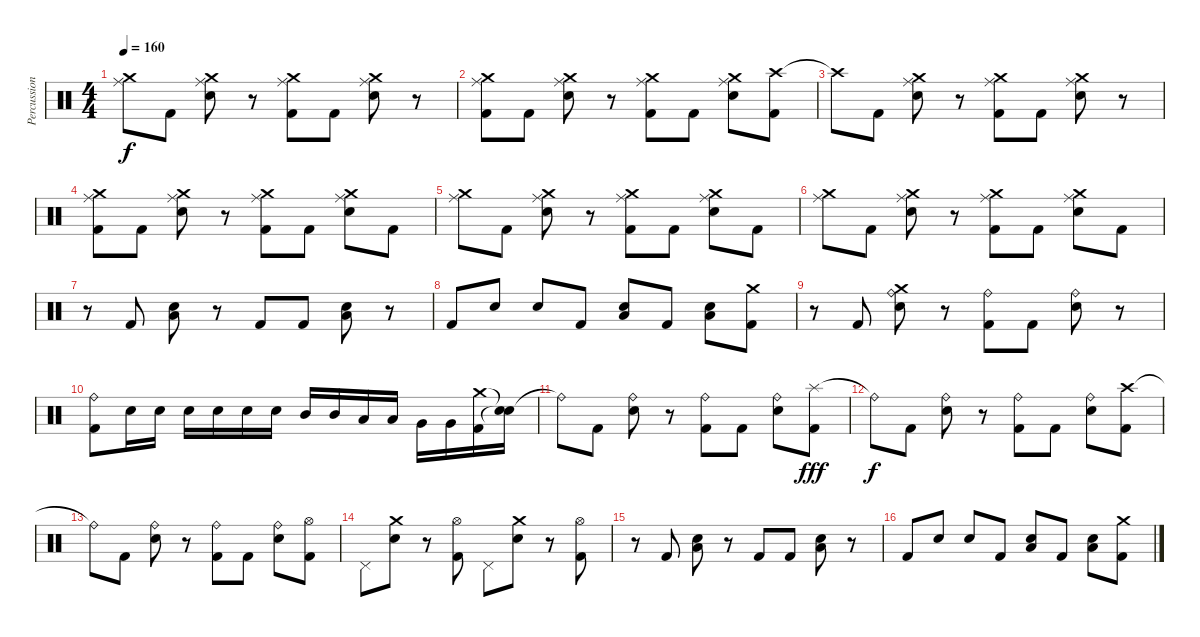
\track ("Percussion" "Percussion") {instrument percussion}
\staff {score}
\articulation defaults
\ts (4 4)
\tempo 160
\clef neutral
\ks c
("Ride (middle)" "Crash medium (hit)").8{dy f} "Kick (hit) 2".8 ("Ride (middle)" "Crash medium (hit)" "Electric Snare (hit)").8 r.8 ("Ride (middle)" "Crash medium (hit)" "Kick (hit) 2").8 "Kick (hit) 2".8 ("Ride (middle)" "Crash medium (hit)" "Electric Snare (hit)").8 r.8 |
("Ride (middle)" "Crash medium (hit)" "Kick (hit) 2").8 "Kick (hit) 2".8 ("Ride (middle)" "Crash medium (hit)" "Electric Snare (hit)").8 r.8 ("Ride (middle)" "Crash medium (hit)" "Kick (hit) 2").8 "Kick (hit) 2".8 ("Ride (middle)" "Crash medium (hit)" "Electric Snare (hit)").8 ("Crash high (hit)" "Kick (hit) 2").8 |
"Crash high (hit)"{t}.8 "Kick (hit) 2".8 ("Ride (middle)" "Crash medium (hit)" "Electric Snare (hit)").8 r.8 ("Ride (middle)" "Crash medium (hit)" "Kick (hit) 2").8 "Kick (hit) 2".8 ("Ride (middle)" "Crash medium (hit)" "Electric Snare (hit)").8 r.8 |
("Ride (middle)" "Crash medium (hit)" "Kick (hit) 2").8 "Kick (hit) 2".8 ("Ride (middle)" "Crash medium (hit)" "Electric Snare (hit)").8 r.8 ("Ride (middle)" "Crash medium (hit)" "Kick (hit) 2").8 "Kick (hit) 2".8 ("Ride (middle)" "Crash medium (hit)" "Electric Snare (hit)").8 "Kick (hit) 2".8 |
("Ride (middle)" "Crash medium (hit)").8 "Kick (hit) 2".8 ("Ride (middle)" "Crash medium (hit)" "Electric Snare (hit)").8 r.8 ("Ride (middle)" "Crash medium (hit)" "Kick (hit) 2").8 "Kick (hit) 2".8 ("Ride (middle)" "Crash medium (hit)" "Electric Snare (hit)").8 "Kick (hit) 2".8 |
("Ride (middle)" "Crash medium (hit)").8 "Kick (hit) 2".8 ("Ride (middle)" "Crash medium (hit)" "Electric Snare (hit)").8 r.8 ("Ride (middle)" "Crash medium (hit)" "Kick (hit) 2").8 "Kick (hit) 2".8 ("Ride (middle)" "Crash medium (hit)" "Electric Snare (hit)").8 "Kick (hit) 2".8 |
r.8 "Kick (hit) 2".8 ("Low Tom (hit)" "Electric Snare (hit)").8 r.8 "Kick (hit) 2".8 "Kick (hit) 2".8 ("Low Tom (hit)" "Electric Snare (hit)").8 r.8 |
"Kick (hit) 2".8 "Electric Snare (hit)".8 "Electric Snare (hit)".8 "Kick (hit) 2".8 ("Low Tom (hit)" "Electric Snare (hit)").8 "Kick (hit) 2".8 ("Low Tom (hit)" "Electric Snare (hit)").8 ("Crash medium (hit)" "Kick (hit) 2").8 |
r.8 "Kick (hit) 2".8 ("Crash medium (hit)" "Ride (bell)" "Electric Snare (hit)").8 r.8 ("Ride (bell)" "Kick (hit) 2").8 "Kick (hit) 2".8 ("Ride (bell)" "Electric Snare (hit)").8 r.8 |
("Ride (bell)" "Kick (hit) 2").8 "Electric Snare (hit)".16 "Electric Snare (hit)".16 "Electric Snare (hit)".16 "Electric Snare (hit)".16 "Electric Snare (hit)".16 "Electric Snare (hit)".16 "Mid Tom (hit)".16 "Mid Tom (hit)".16 "Low Tom (hit)".16 "Low Tom (hit)".16 "Very Low Tom (hit)".16 "Very Low Tom (hit)".16 ("Crash medium (hit)" "Kick (hit) 2").16 ("Snare (hit)"{t} "Snare (hit)"{t}).16 |
"Ride (bell)"{t}.8 "Kick (hit) 2".8 ("Ride (bell)" "Electric Snare (hit)").8 r.8 ("Ride (bell)" "Kick (hit) 2").8 "Kick (hit) 2".8 ("Ride (bell)" "Electric Snare (hit)").8 ("Splash (hit)" "Kick (hit) 2").8{dy fff} |
"Ride (bell)"{t}.8{dy f} "Kick (hit) 2".8 ("Ride (bell)" "Electric Snare (hit)").8 r.8 ("Ride (bell)" "Kick (hit) 2").8 "Kick (hit) 2".8 ("Ride (bell)" "Electric Snare (hit)").8 ("Crash high (hit)" "Kick (hit) 2").8 |
"Ride (bell)"{t}.8 "Kick (hit) 2".8 ("Ride (bell)" "Electric Snare (hit)").8 r.8 ("Ride (bell)" "Kick (hit) 2").8 "Kick (hit) 2".8 ("Ride (bell)" "Electric Snare (hit)").8 ("Hi-Hat (open)" "Kick (hit) 2").8 |
"Pedal Hi-Hat (hit)".8 ("Crash medium (hit)" "Electric Snare (hit)").8 r.8 ("Hi-Hat (open)" "Kick (hit) 2").8 "Pedal Hi-Hat (hit)".8 ("Crash medium (hit)" "Electric Snare (hit)").8 r.8 ("Hi-Hat (open)" "Kick (hit) 2").8 |
r.8 "Kick (hit) 2".8 ("Low Tom (hit)" "Electric Snare (hit)").8 r.8 "Kick (hit) 2".8 "Kick (hit) 2".8 ("Low Tom (hit)" "Electric Snare (hit)").8 r.8 |
"Kick (hit) 2".8 "Electric Snare (hit)".8 "Electric Snare (hit)".8 "Kick (hit) 2".8 ("Low Tom (hit)" "Electric Snare (hit)").8 "Kick (hit) 2".8 ("Low Tom (hit)" "Electric Snare (hit)").8 ("Crash medium (hit)" "Kick (hit) 2").8
